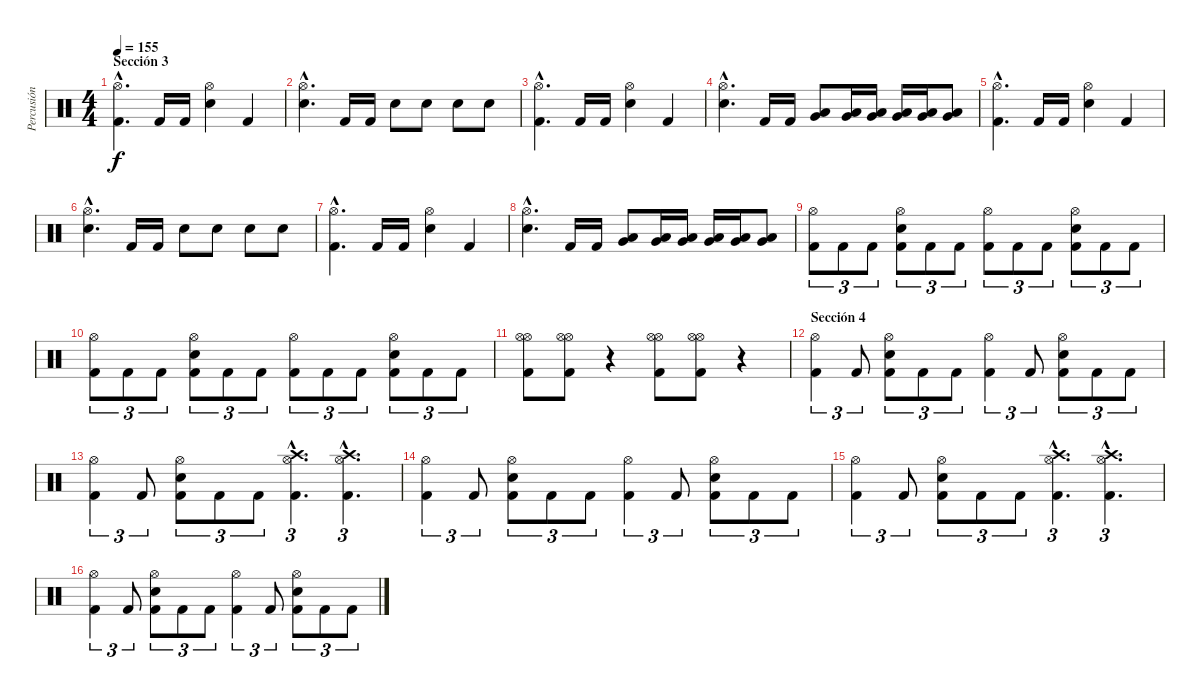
\track ("Percusión" "Percusión") {instrument percussion}
\staff {score}
\articulation defaults
\ts (4 4)
\section ("" "Sección 3")
\tempo 155
\clef neutral
\ks c
("Hi-Hat (open)"{hac} "Kick (hit) 2"{hac}).4{d dy f} "Kick (hit) 2".16 "Kick (hit) 2".16 ("Hi-Hat (open)" "Electric Snare (hit)").4 "Kick (hit) 2".4 |
("Hi-Hat (open)"{hac} "Electric Snare (hit)"{hac}).4{d} "Kick (hit) 2".16 "Kick (hit) 2".16 "Electric Snare (hit)".8 "Electric Snare (hit)".8 "Electric Snare (hit)".8 "Electric Snare (hit)".8 |
("Hi-Hat (open)"{hac} "Kick (hit) 2"{hac}).4{d} "Kick (hit) 2".16 "Kick (hit) 2".16 ("Hi-Hat (open)" "Electric Snare (hit)").4 "Kick (hit) 2".4 |
("Hi-Hat (open)"{hac} "Electric Snare (hit)"{hac}).4{d} "Kick (hit) 2".16 "Kick (hit) 2".16 ("Low Tom (hit)" "Very Low Tom (hit)").8 ("Low Tom (hit)" "Very Low Tom (hit)").16 ("Low Tom (hit)" "Very Low Tom (hit)").16 ("Low Tom (hit)" "Very Low Tom (hit)").16 ("Low Tom (hit)" "Very Low Tom (hit)").16 ("Low Tom (hit)" "Very Low Tom (hit)").8 |
("Hi-Hat (open)"{hac} "Kick (hit) 2"{hac}).4{d} "Kick (hit) 2".16 "Kick (hit) 2".16 ("Hi-Hat (open)" "Electric Snare (hit)").4 "Kick (hit) 2".4 |
("Hi-Hat (open)"{hac} "Electric Snare (hit)"{hac}).4{d} "Kick (hit) 2".16 "Kick (hit) 2".16 "Electric Snare (hit)".8 "Electric Snare (hit)".8 "Electric Snare (hit)".8 "Electric Snare (hit)".8 |
("Hi-Hat (open)"{hac} "Kick (hit) 2"{hac}).4{d} "Kick (hit) 2".16 "Kick (hit) 2".16 ("Hi-Hat (open)" "Electric Snare (hit)").4 "Kick (hit) 2".4 |
("Hi-Hat (open)"{hac} "Electric Snare (hit)"{hac}).4{d} "Kick (hit) 2".16 "Kick (hit) 2".16 ("Low Tom (hit)" "Very Low Tom (hit)").8 ("Low Tom (hit)" "Very Low Tom (hit)").16 ("Low Tom (hit)" "Very Low Tom (hit)").16 ("Low Tom (hit)" "Very Low Tom (hit)").16 ("Low Tom (hit)" "Very Low Tom (hit)").16 ("Low Tom (hit)" "Very Low Tom (hit)").8 |
("Hi-Hat (open)" "Kick (hit) 2").8{tu (3 2)} "Kick (hit) 2".8{tu (3 2)} "Kick (hit) 2".8{tu (3 2)} ("Hi-Hat (open)" "Electric Snare (hit)" "Kick (hit) 2").8{tu (3 2)} "Kick (hit) 2".8{tu (3 2)} "Kick (hit) 2".8{tu (3 2)} ("Hi-Hat (open)" "Kick (hit) 2").8{tu (3 2)} "Kick (hit) 2".8{tu (3 2)} "Kick (hit) 2".8{tu (3 2)} ("Hi-Hat (open)" "Electric Snare (hit)" "Kick (hit) 2").8{tu (3 2)} "Kick (hit) 2".8{tu (3 2)} "Kick (hit) 2".8{tu (3 2)} |
("Hi-Hat (open)" "Kick (hit) 2").8{tu (3 2)} "Kick (hit) 2".8{tu (3 2)} "Kick (hit) 2".8{tu (3 2)} ("Hi-Hat (open)" "Electric Snare (hit)" "Kick (hit) 2").8{tu (3 2)} "Kick (hit) 2".8{tu (3 2)} "Kick (hit) 2".8{tu (3 2)} ("Hi-Hat (open)" "Kick (hit) 2").8{tu (3 2)} "Kick (hit) 2".8{tu (3 2)} "Kick (hit) 2".8{tu (3 2)} ("Hi-Hat (open)" "Electric Snare (hit)" "Kick (hit) 2").8{tu (3 2)} "Kick (hit) 2".8{tu (3 2)} "Kick (hit) 2".8{tu (3 2)} |
("Hi-Hat (open)" "Hi-Hat (open)" "Kick (hit) 2").8 ("Hi-Hat (open)" "Hi-Hat (open)" "Kick (hit) 2").8 r.4 ("Hi-Hat (open)" "Hi-Hat (open)" "Kick (hit) 2").8 ("Hi-Hat (open)" "Hi-Hat (open)" "Kick (hit) 2").8 r.4 |
\section ("" "Sección 4")
("Hi-Hat (open)" "Kick (hit) 2").4{tu (3 2)} "Kick (hit) 2".8{tu (3 2)} ("Hi-Hat (open)" "Electric Snare (hit)" "Kick (hit) 2").8{tu (3 2)} "Kick (hit) 2".8{tu (3 2)} "Kick (hit) 2".8{tu (3 2)} ("Hi-Hat (open)" "Kick (hit) 2").4{tu (3 2)} "Kick (hit) 2".8{tu (3 2)} ("Hi-Hat (open)" "Electric Snare (hit)" "Kick (hit) 2").8{tu (3 2)} "Kick (hit) 2".8{tu (3 2)} "Kick (hit) 2".8{tu (3 2)} |
("Hi-Hat (open)" "Kick (hit) 2").4{tu (3 2)} "Kick (hit) 2".8{tu (3 2)} ("Hi-Hat (open)" "Electric Snare (hit)" "Kick (hit) 2").8{tu (3 2)} "Kick (hit) 2".8{tu (3 2)} "Kick (hit) 2".8{tu (3 2)} ("Hi-Hat (open)"{hac} "Crash high (hit)"{hac} "Kick (hit) 2"{hac}).4{d tu (3 2)} ("Hi-Hat (open)"{hac} "Crash high (hit)"{hac} "Kick (hit) 2"{hac}).4{d tu (3 2)} |
("Hi-Hat (open)" "Kick (hit) 2").4{tu (3 2)} "Kick (hit) 2".8{tu (3 2)} ("Hi-Hat (open)" "Electric Snare (hit)" "Kick (hit) 2").8{tu (3 2)} "Kick (hit) 2".8{tu (3 2)} "Kick (hit) 2".8{tu (3 2)} ("Hi-Hat (open)" "Kick (hit) 2").4{tu (3 2)} "Kick (hit) 2".8{tu (3 2)} ("Hi-Hat (open)" "Electric Snare (hit)" "Kick (hit) 2").8{tu (3 2)} "Kick (hit) 2".8{tu (3 2)} "Kick (hit) 2".8{tu (3 2)} |
("Hi-Hat (open)" "Kick (hit) 2").4{tu (3 2)} "Kick (hit) 2".8{tu (3 2)} ("Hi-Hat (open)" "Electric Snare (hit)" "Kick (hit) 2").8{tu (3 2)} "Kick (hit) 2".8{tu (3 2)} "Kick (hit) 2".8{tu (3 2)} ("Hi-Hat (open)"{hac} "Crash high (hit)"{hac} "Kick (hit) 2"{hac}).4{d tu (3 2)} ("Hi-Hat (open)"{hac} "Crash high (hit)"{hac} "Kick (hit) 2"{hac}).4{d tu (3 2)} |
("Hi-Hat (open)" "Kick (hit) 2").4{tu (3 2)} "Kick (hit) 2".8{tu (3 2)} ("Hi-Hat (open)" "Electric Snare (hit)" "Kick (hit) 2").8{tu (3 2)} "Kick (hit) 2".8{tu (3 2)} "Kick (hit) 2".8{tu (3 2)} ("Hi-Hat (open)" "Kick (hit) 2").4{tu (3 2)} "Kick (hit) 2".8{tu (3 2)} ("Hi-Hat (open)" "Electric Snare (hit)" "Kick (hit) 2").8{tu (3 2)} "Kick (hit) 2".8{tu (3 2)} "Kick (hit) 2".8{tu (3 2)}
